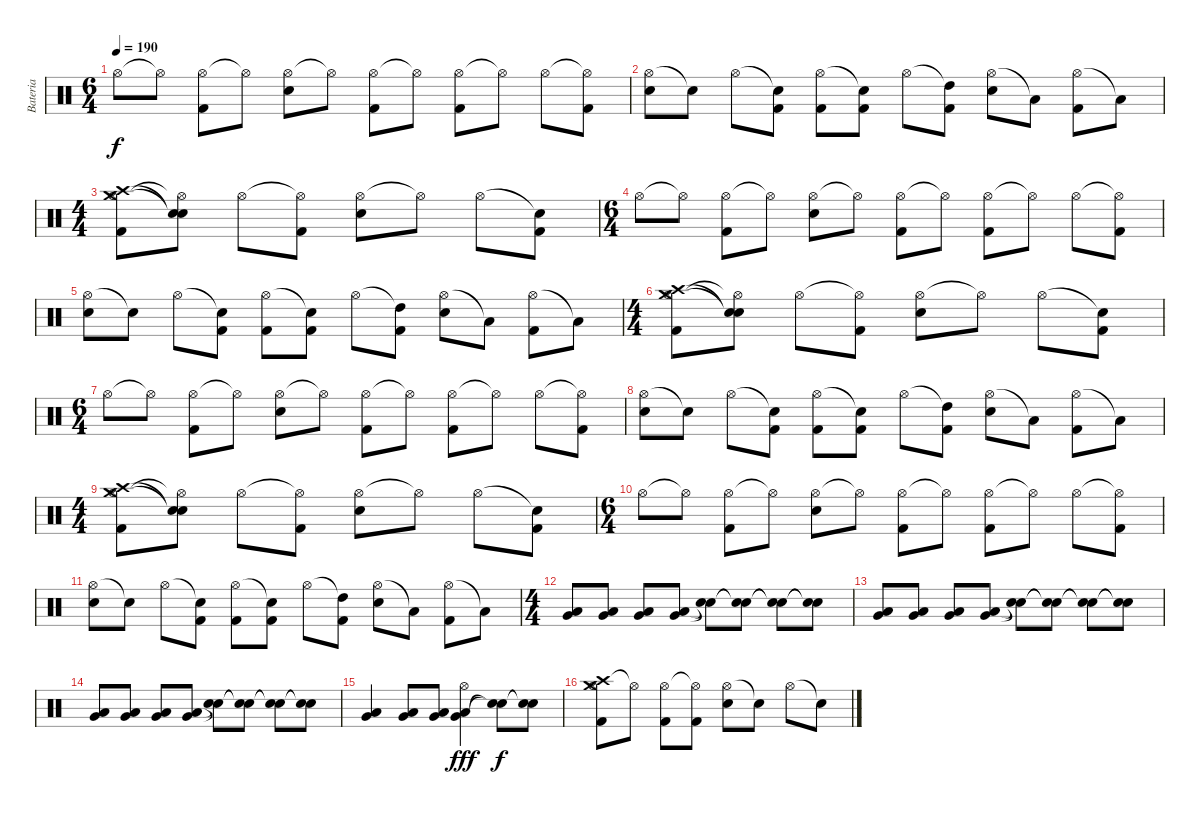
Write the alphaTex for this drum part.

\track ("Bateria" "Bateria") {instrument percussion}
\staff {score}
\articulation defaults
\ts (6 4)
\tempo 190
\clef neutral
\ks c "Hi-Hat (open)".8{dy f} "Hi-Hat (open)"{t}.8
("Hi-Hat (open)" "Kick (hit) 2").8 "Hi-Hat (open)"{t}.8 ("Hi-Hat (open)" "Electric Snare (hit)").8 "Hi-Hat (open)"{t}.8 ("Hi-Hat (open)" "Kick (hit) 2").8 "Hi-Hat (open)"{t}.8 ("Hi-Hat (open)" "Kick (hit) 2").8 "Hi-Hat (open)"{t}.8 "Hi-Hat (open)".8 ("Hi-Hat (open)"{t} "Kick (hit) 2").8 |
("Hi-Hat (open)" "Electric Snare (hit)").8 "Snare (hit)"{t}.8 "Hi-Hat (open)".8 ("Snare (hit)"{t} "Kick (hit) 2").8 ("Hi-Hat (open)" "Kick (hit) 2").8 ("Snare (hit)"{t} "Kick (hit) 2").8 "Hi-Hat (open)".8 ("High Tom (hit)"{t} "Kick (hit) 2").8 ("Hi-Hat (open)" "Electric Snare (hit)").8 "Low Tom (hit)"{t}.8 ("Hi-Hat (open)" "Kick (hit) 2").8 "Low Tom (hit)"{t}.8 |
\ts (4 4)
("Hi-Hat (open)" "Crash high (hit)" "Crash medium (hit)" "Kick (hit) 2").8 ("Snare (hit)"{t} "Snare (hit)"{t} "Hi-Hat (open)"{t}).8 "Hi-Hat (open)".8 ("Hi-Hat (open)"{t} "Kick (hit) 2").8 ("Hi-Hat (open)" "Electric Snare (hit)").8 "Hi-Hat (open)"{t}.8 "Hi-Hat (open)".8 ("Snare (hit)"{t} "Kick (hit) 2").8 |
\ts (6 4)
"Hi-Hat (open)".8 "Hi-Hat (open)"{t}.8 ("Hi-Hat (open)" "Kick (hit) 2").8 "Hi-Hat (open)"{t}.8 ("Hi-Hat (open)" "Electric Snare (hit)").8 "Hi-Hat (open)"{t}.8 ("Hi-Hat (open)" "Kick (hit) 2").8 "Hi-Hat (open)"{t}.8 ("Hi-Hat (open)" "Kick (hit) 2").8 "Hi-Hat (open)"{t}.8 "Hi-Hat (open)".8 ("Hi-Hat (open)"{t} "Kick (hit) 2").8 |
("Hi-Hat (open)" "Electric Snare (hit)").8 "Snare (hit)"{t}.8 "Hi-Hat (open)".8 ("Snare (hit)"{t} "Kick (hit) 2").8 ("Hi-Hat (open)" "Kick (hit) 2").8 ("Snare (hit)"{t} "Kick (hit) 2").8 "Hi-Hat (open)".8 ("High Tom (hit)"{t} "Kick (hit) 2").8 ("Hi-Hat (open)" "Electric Snare (hit)").8 "Low Tom (hit)"{t}.8 ("Hi-Hat (open)" "Kick (hit) 2").8 "Low Tom (hit)"{t}.8 |
\ts (4 4)
("Hi-Hat (open)" "Crash high (hit)" "Crash medium (hit)" "Kick (hit) 2").8 ("Snare (hit)"{t} "Snare (hit)"{t} "Hi-Hat (open)"{t}).8 "Hi-Hat (open)".8 ("Hi-Hat (open)"{t} "Kick (hit) 2").8 ("Hi-Hat (open)" "Electric Snare (hit)").8 "Hi-Hat (open)"{t}.8 "Hi-Hat (open)".8 ("Snare (hit)"{t} "Kick (hit) 2").8 |
\ts (6 4)
"Hi-Hat (open)".8 "Hi-Hat (open)"{t}.8 ("Hi-Hat (open)" "Kick (hit) 2").8 "Hi-Hat (open)"{t}.8 ("Hi-Hat (open)" "Electric Snare (hit)").8 "Hi-Hat (open)"{t}.8 ("Hi-Hat (open)" "Kick (hit) 2").8 "Hi-Hat (open)"{t}.8 ("Hi-Hat (open)" "Kick (hit) 2").8 "Hi-Hat (open)"{t}.8 "Hi-Hat (open)".8 ("Hi-Hat (open)"{t} "Kick (hit) 2").8 |
("Hi-Hat (open)" "Electric Snare (hit)").8 "Snare (hit)"{t}.8 "Hi-Hat (open)".8 ("Snare (hit)"{t} "Kick (hit) 2").8 ("Hi-Hat (open)" "Kick (hit) 2").8 ("Snare (hit)"{t} "Kick (hit) 2").8 "Hi-Hat (open)".8 ("High Tom (hit)"{t} "Kick (hit) 2").8 ("Hi-Hat (open)" "Electric Snare (hit)").8 "Low Tom (hit)"{t}.8 ("Hi-Hat (open)" "Kick (hit) 2").8 "Low Tom (hit)"{t}.8 |
\ts (4 4)
("Hi-Hat (open)" "Crash high (hit)" "Crash medium (hit)" "Kick (hit) 2").8 ("Snare (hit)"{t} "Snare (hit)"{t} "Hi-Hat (open)"{t}).8 "Hi-Hat (open)".8 ("Hi-Hat (open)"{t} "Kick (hit) 2").8 ("Hi-Hat (open)" "Electric Snare (hit)").8 "Hi-Hat (open)"{t}.8 "Hi-Hat (open)".8 ("Snare (hit)"{t} "Kick (hit) 2").8 |
\ts (6 4)
"Hi-Hat (open)".8 "Hi-Hat (open)"{t}.8 ("Hi-Hat (open)" "Kick (hit) 2").8 "Hi-Hat (open)"{t}.8 ("Hi-Hat (open)" "Electric Snare (hit)").8 "Hi-Hat (open)"{t}.8 ("Hi-Hat (open)" "Kick (hit) 2").8 "Hi-Hat (open)"{t}.8 ("Hi-Hat (open)" "Kick (hit) 2").8 "Hi-Hat (open)"{t}.8 "Hi-Hat (open)".8 ("Hi-Hat (open)"{t} "Kick (hit) 2").8 |
("Hi-Hat (open)" "Electric Snare (hit)").8 "Snare (hit)"{t}.8 "Hi-Hat (open)".8 ("Snare (hit)"{t} "Kick (hit) 2").8 ("Hi-Hat (open)" "Kick (hit) 2").8 ("Snare (hit)"{t} "Kick (hit) 2").8 "Hi-Hat (open)".8 ("High Tom (hit)"{t} "Kick (hit) 2").8 ("Hi-Hat (open)" "Electric Snare (hit)").8 "Low Tom (hit)"{t}.8 ("Hi-Hat (open)" "Kick (hit) 2").8 "Low Tom (hit)"{t}.8 |
\ts (4 4)
("Very Low Tom (hit)" "Low Tom (hit)").8 ("Very Low Tom (hit)" "Low Tom (hit)").8 ("Very Low Tom (hit)" "Low Tom (hit)").8 ("Very Low Tom (hit)" "Low Tom (hit)").8 ("Snare (hit)"{t} "Snare (hit)"{t}).8 ("Snare (hit)"{t} "Snare (hit)"{t}).8 ("Snare (hit)"{t} "Snare (hit)"{t}).8 ("Snare (hit)"{t} "Snare (hit)"{t}).8 |
("Very Low Tom (hit)" "Low Tom (hit)").8 ("Very Low Tom (hit)" "Low Tom (hit)").8 ("Very Low Tom (hit)" "Low Tom (hit)").8 ("Very Low Tom (hit)" "Low Tom (hit)").8 ("Snare (hit)"{t} "Snare (hit)"{t}).8 ("Snare (hit)"{t} "Snare (hit)"{t}).8 ("Snare (hit)"{t} "Snare (hit)"{t}).8 ("Snare (hit)"{t} "Snare (hit)"{t}).8 |
("Very Low Tom (hit)" "Low Tom (hit)").8 ("Very Low Tom (hit)" "Low Tom (hit)").8 ("Very Low Tom (hit)" "Low Tom (hit)").8 ("Very Low Tom (hit)" "Low Tom (hit)").8 ("Snare (hit)"{t} "Snare (hit)"{t}).8 ("Snare (hit)"{t} "Snare (hit)"{t}).8 ("Snare (hit)"{t} "Snare (hit)"{t}).8 ("Snare (hit)"{t} "Snare (hit)"{t}).8 |
("Very Low Tom (hit)" "Low Tom (hit)").4 ("Very Low Tom (hit)" "Low Tom (hit)").8 ("Very Low Tom (hit)" "Low Tom (hit)").8 ("Very Low Tom (hit)" "Low Tom (hit)" "Hi-Hat (open)").4{dy fff} ("Snare (hit)"{t} "Snare (hit)"{t}).8{dy f} ("Snare (hit)"{t} "Snare (hit)"{t}).8 |
("Crash high (hit)" "Crash medium (hit)" "Hi-Hat (open)" "Kick (hit) 2").8 "Hi-Hat (open)"{t}.8 ("Hi-Hat (open)" "Kick (hit) 2").8 ("Hi-Hat (open)"{t} "Kick (hit) 2").8 ("Hi-Hat (open)" "Electric Snare (hit)").8 "Snare (hit)"{t}.8 "Hi-Hat (open)".8 "Snare (hit)"{t}.8
